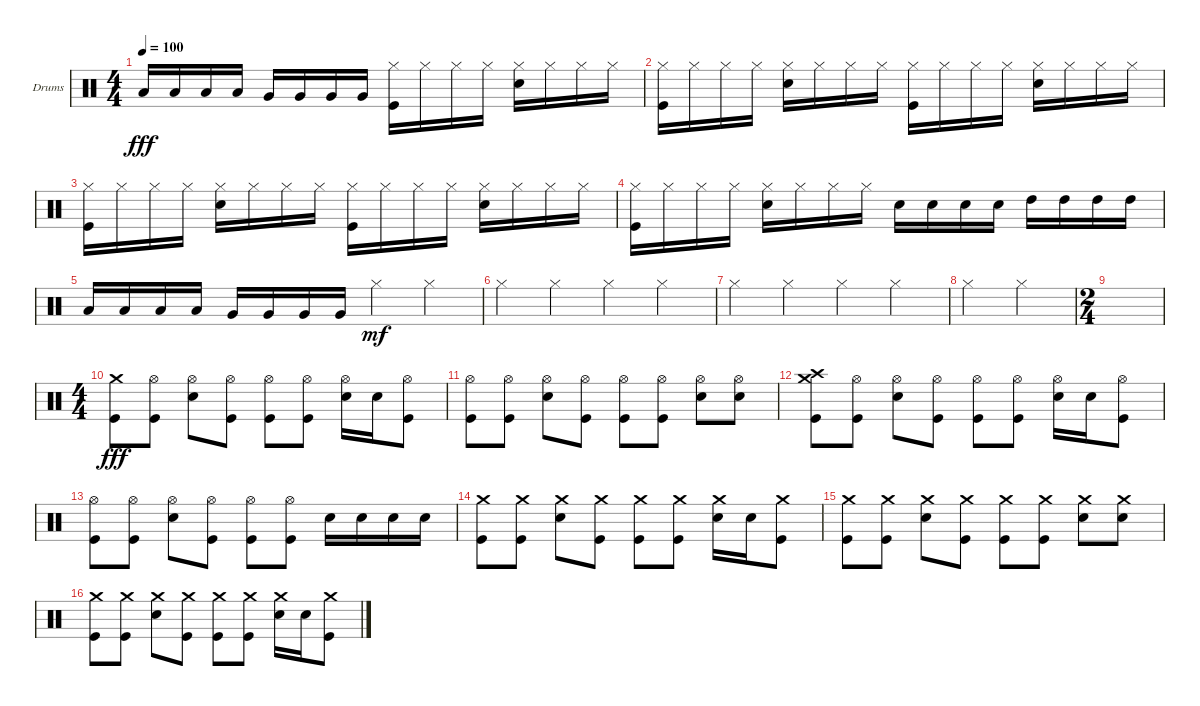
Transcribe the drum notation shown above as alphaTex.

\bracketExtendMode groupsimilarinstruments
\firstSystemTrackNameOrientation horizontal
\otherSystemsTrackNameOrientation horizontal
\track ("Drumkit" "Drums") {instrument percussion}
\staff {score}
\articulation defaults
\ts (4 4)
\tempo 100
\clef neutral
\ks c "Low Tom (hit)".16{dy fff} "Low Tom (hit)".16 "Low Tom (hit)".16 "Low Tom (hit)".16 "Very Low Tom (hit)".16 "Very Low Tom (hit)".16 "Very Low Tom (hit)".16 "Very Low Tom (hit)".16
("Kick (hit)" "Hi-Hat (closed)").16 "Hi-Hat (closed)".16 "Hi-Hat (closed)".16 "Hi-Hat (closed)".16 ("Snare (hit) 2" "Hi-Hat (closed)").16 "Hi-Hat (closed)".16 "Hi-Hat (closed)".16 "Hi-Hat (closed)".16 |
("Kick (hit)" "Hi-Hat (closed)").16 "Hi-Hat (closed)".16 "Hi-Hat (closed)".16 "Hi-Hat (closed)".16 ("Snare (hit) 2" "Hi-Hat (closed)").16 "Hi-Hat (closed)".16 "Hi-Hat (closed)".16 "Hi-Hat (closed)".16 ("Kick (hit)" "Hi-Hat (closed)").16 "Hi-Hat (closed)".16 "Hi-Hat (closed)".16 "Hi-Hat (closed)".16 ("Snare (hit) 2" "Hi-Hat (closed)").16 "Hi-Hat (closed)".16 "Hi-Hat (closed)".16 "Hi-Hat (closed)".16 |
("Kick (hit)" "Hi-Hat (closed)").16 "Hi-Hat (closed)".16 "Hi-Hat (closed)".16 "Hi-Hat (closed)".16 ("Snare (hit) 2" "Hi-Hat (closed)").16 "Hi-Hat (closed)".16 "Hi-Hat (closed)".16 "Hi-Hat (closed)".16 ("Kick (hit)" "Hi-Hat (closed)").16 "Hi-Hat (closed)".16 "Hi-Hat (closed)".16 "Hi-Hat (closed)".16 ("Snare (hit) 2" "Hi-Hat (closed)").16 "Hi-Hat (closed)".16 "Hi-Hat (closed)".16 "Hi-Hat (closed)".16 |
("Kick (hit)" "Hi-Hat (closed)").16 "Hi-Hat (closed)".16 "Hi-Hat (closed)".16 "Hi-Hat (closed)".16 ("Snare (hit) 2" "Hi-Hat (closed)").16 "Hi-Hat (closed)".16 "Hi-Hat (closed)".16 "Hi-Hat (closed)".16 "Snare (hit) 2".16 "Snare (hit) 2".16 "Snare (hit) 2".16 "Snare (hit) 2".16 "High Tom (hit)".16 "High Tom (hit)".16 "High Tom (hit)".16 "High Tom (hit)".16 |
"Low Tom (hit)".16 "Low Tom (hit)".16 "Low Tom (hit)".16 "Low Tom (hit)".16 "Very Low Tom (hit)".16 "Very Low Tom (hit)".16 "Very Low Tom (hit)".16 "Very Low Tom (hit)".16 "Hi-Hat (closed)".4{dy mf} "Hi-Hat (closed)".4 |
"Hi-Hat (closed)".4 "Hi-Hat (closed)".4 "Hi-Hat (closed)".4 "Hi-Hat (closed)".4 |
"Hi-Hat (closed)".4 "Hi-Hat (closed)".4 "Hi-Hat (closed)".4 "Hi-Hat (closed)".4 |
"Hi-Hat (closed)".4 "Hi-Hat (closed)".4 |
\ts (2 4)
|
\ts (4 4)
("Kick (hit)" "Crash medium (hit)").8{dy fff} ("Kick (hit)" "Hi-Hat (open)").8 ("Snare (hit) 2" "Hi-Hat (open)").8 ("Hi-Hat (open)" "Kick (hit)").8 ("Kick (hit)" "Hi-Hat (open)").8 ("Kick (hit)" "Hi-Hat (open)").8 ("Snare (hit) 2" "Hi-Hat (open)").16 "Snare (hit) 2".16 ("Hi-Hat (open)" "Kick (hit)").8 |
("Kick (hit)" "Hi-Hat (open)").8 ("Kick (hit)" "Hi-Hat (open)").8 ("Snare (hit) 2" "Hi-Hat (open)").8 ("Hi-Hat (open)" "Kick (hit)").8 ("Kick (hit)" "Hi-Hat (open)").8 ("Kick (hit)" "Hi-Hat (open)").8 ("Snare (hit) 2" "Hi-Hat (open)").8 ("Snare (hit) 2" "Hi-Hat (open)").8 |
("Kick (hit)" "Crash medium (hit)" "Crash high (hit)").8 ("Kick (hit)" "Hi-Hat (open)").8 ("Snare (hit) 2" "Hi-Hat (open)").8 ("Hi-Hat (open)" "Kick (hit)").8 ("Kick (hit)" "Hi-Hat (open)").8 ("Kick (hit)" "Hi-Hat (open)").8 ("Snare (hit) 2" "Hi-Hat (open)").16 "Snare (hit) 2".16 ("Hi-Hat (open)" "Kick (hit)").8 |
("Kick (hit)" "Hi-Hat (open)").8 ("Kick (hit)" "Hi-Hat (open)").8 ("Snare (hit) 2" "Hi-Hat (open)").8 ("Hi-Hat (open)" "Kick (hit)").8 ("Kick (hit)" "Hi-Hat (open)").8 ("Kick (hit)" "Hi-Hat (open)").8 "Snare (hit) 2".16 "Snare (hit) 2".16 "Snare (hit) 2".16 "Snare (hit) 2".16 |
("Kick (hit)" "Crash medium (hit)").8 ("Kick (hit)" "Crash medium (hit)").8 ("Snare (hit) 2" "Crash medium (hit)").8 ("Kick (hit)" "Crash medium (hit)").8 ("Kick (hit)" "Crash medium (hit)").8 ("Kick (hit)" "Crash medium (hit)").8 ("Snare (hit) 2" "Crash medium (hit)").16 "Snare (hit) 2".16 ("Kick (hit)" "Crash medium (hit)").8 |
("Kick (hit)" "Crash medium (hit)").8 ("Kick (hit)" "Crash medium (hit)").8 ("Snare (hit) 2" "Crash medium (hit)").8 ("Kick (hit)" "Crash medium (hit)").8 ("Kick (hit)" "Crash medium (hit)").8 ("Kick (hit)" "Crash medium (hit)").8 ("Snare (hit) 2" "Crash medium (hit)").8 ("Snare (hit) 2" "Crash medium (hit)").8 |
("Kick (hit)" "Crash medium (hit)").8 ("Kick (hit)" "Crash medium (hit)").8 ("Snare (hit) 2" "Crash medium (hit)").8 ("Kick (hit)" "Crash medium (hit)").8 ("Kick (hit)" "Crash medium (hit)").8 ("Kick (hit)" "Crash medium (hit)").8 ("Snare (hit) 2" "Crash medium (hit)").16 "Snare (hit) 2".16 ("Kick (hit)" "Crash medium (hit)").8
